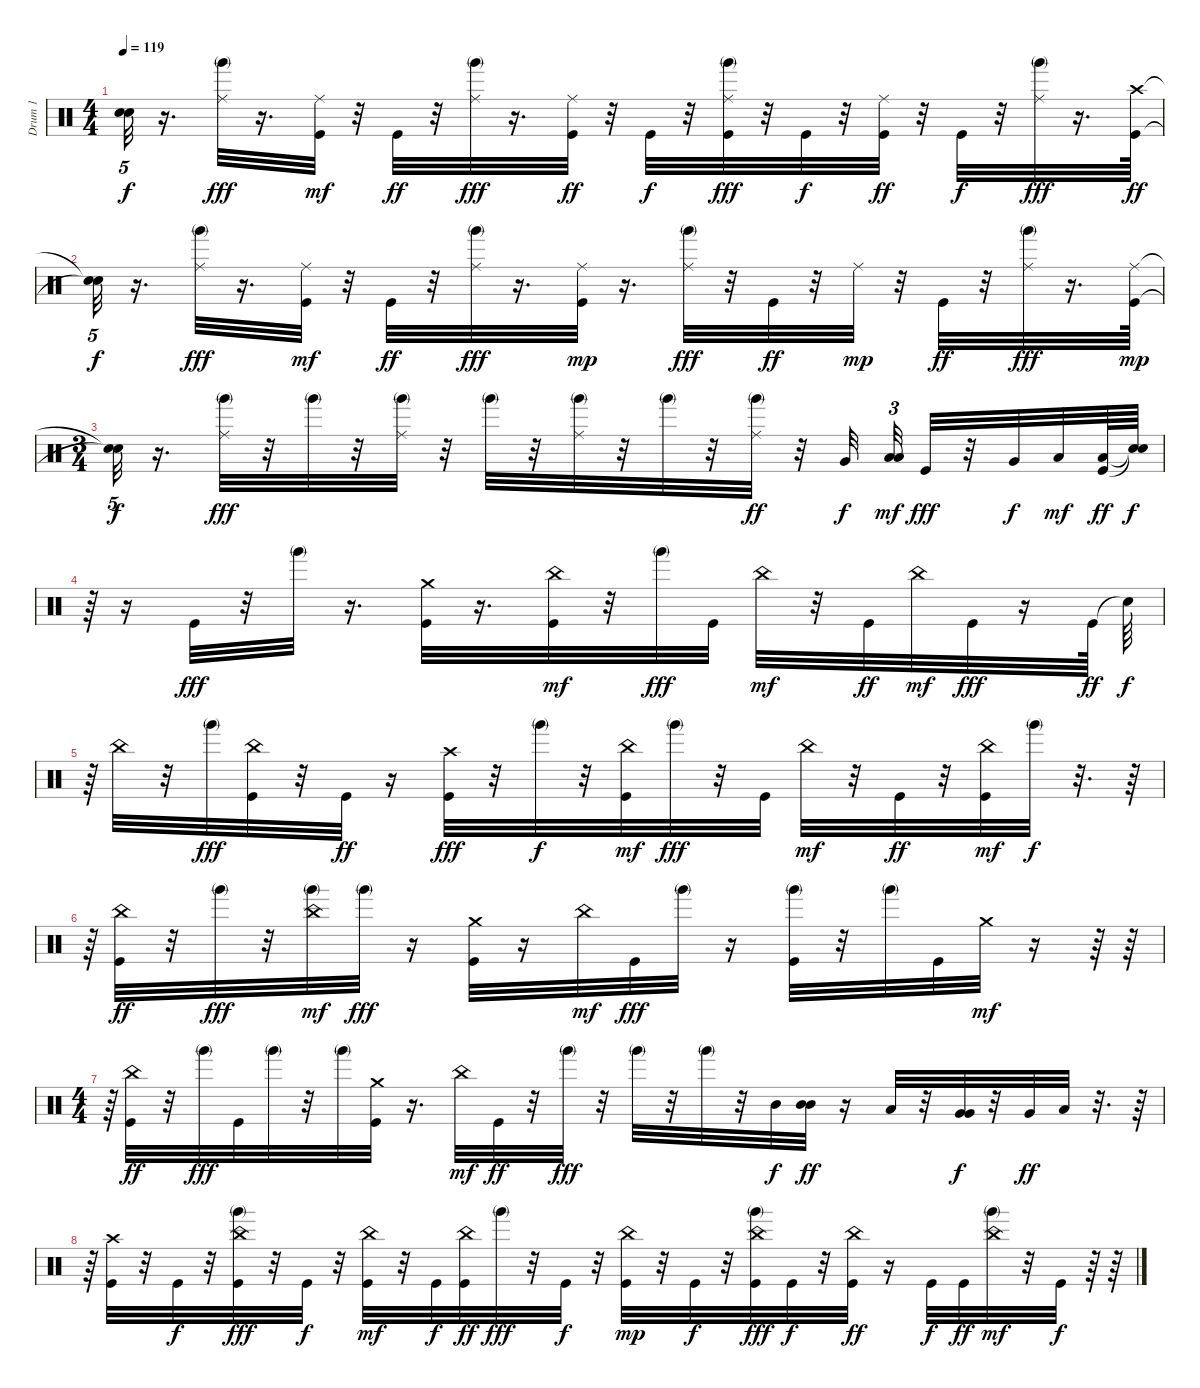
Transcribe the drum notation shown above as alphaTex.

\track ("Drum 1                          " "Drum 1    ") {instrument percussion}
\staff {score}
\articulation defaults
\ts (4 4)
\tempo 119
\clef neutral
\ks c
("Snare (hit)"{t} "Snare (hit)"{t}).32{tu (5 4) dy f} r.16{d} ("Ride (middle)" "Hand (mute) 2").32{dy fff} r.16{d} ("Kick (hit)" "Ride (middle)").32{dy mf} r.32 "Kick (hit)".32{dy ff} r.32 ("Ride (middle)" "Hand (mute) 2").32{dy fff} r.16{d} ("Ride (middle)" "Kick (hit)").32{dy ff} r.32 "Kick (hit)".32{dy f} r.32 ("Kick (hit)" "Ride (middle)" "Hand (mute) 2").32{dy fff} r.32 "Kick (hit)".32{dy f} r.32 ("Ride (middle)" "Kick (hit)").32{dy ff} r.32 "Kick (hit)".32{dy f} r.32 ("Ride (middle)" "Hand (mute) 2").32{dy fff} r.16{d} ("Kick (hit)" "Crash high (hit)").64{dy ff} |
("Snare (hit)"{t} "Snare (hit)"{t}).32{tu (5 4) dy f} r.16{d} ("Ride (middle)" "Hand (mute) 2").32{dy fff} r.16{d} ("Kick (hit)" "Ride (middle)").32{dy mf} r.32 "Kick (hit)".32{dy ff} r.32 ("Ride (middle)" "Hand (mute) 2").32{dy fff} r.16{d} ("Kick (hit)" "Ride (middle)").32{dy mp} r.16{d} ("Ride (middle)" "Hand (mute) 2").32{dy fff} r.32 "Kick (hit)".32{dy ff} r.32 "Ride (middle)".32{dy mp} r.32 "Kick (hit)".32{dy ff} r.32 ("Ride (middle)" "Hand (mute) 2").32{dy fff} r.16{d} ("Kick (hit)" "Ride (middle)").64{dy mp} |
\ts (3 4)
("Snare (hit)"{t} "Snare (hit)"{t}).32{tu (5 4) dy f} r.16{d} ("Ride (middle)" "Hand (mute) 2").32{dy fff} r.32 "Hand (mute) 2".32 r.32 ("Ride (middle)" "Hand (mute) 2").32 r.32 "Hand (mute) 2".32 r.32 ("Ride (middle)" "Hand (mute) 2").32 r.32 "Hand (mute) 2".32 r.32 ("Ride (middle)" "Hand (mute) 2").32{dy ff} r.32 "Very Low Tom (hit)".32{dy f} ("Low Tom (hit)" "Low Floor Tom (hit)").32{tu (3 2) dy mf} "Kick (hit)".32{dy fff} r.32 "Very Low Tom (hit)".32{dy f} "Low Tom (hit)".32{dy mf} ("Low Floor Tom (hit)" "Kick (hit)").64{dy ff} ("Snare (hit)"{t} "Snare (hit)"{t}).64{dy f} |
r.64 r.16 "Kick (hit)".32{dy fff} r.32 "Hand (mute) 2".32 r.16{d} ("Crash medium (hit)" "Kick (hit)").32 r.16{d} ("Kick (hit)" "China (hit)").32{dy mf} r.32 "Hand (mute) 2".32{dy fff} "Kick (hit)".32 "China (hit)".32{dy mf} r.32 "Kick (hit)".32{dy ff} "China (hit)".32{dy mf} "Kick (hit)".32{dy fff} r.16 "Kick (hit)".64{dy ff} "Snare (hit)"{t}.64{dy f} |
r.64 "China (hit)".32 r.32 "Hand (mute) 2".32{dy fff} ("China (hit)" "Kick (hit)").32 r.32 "Kick (hit)".32{dy ff} r.16 ("Crash high (hit)" "Kick (hit)").32{dy fff} r.32 "Hand (mute) 2".32{dy f} r.32 ("Kick (hit)" "China (hit)").32{dy mf} "Hand (mute) 2".32{dy fff} r.32 "Kick (hit)".32 "China (hit)".32{dy mf} r.32 "Kick (hit)".32{dy ff} r.32 ("Kick (hit)" "China (hit)").32{dy mf} "Hand (mute) 2".32{dy f} r.32{d} r.64 |
r.64 ("China (hit)" "Kick (hit)").32{dy ff} r.32 "Hand (mute) 2".32{dy fff} r.32 ("Hand (mute) 2" "China (hit)").32{dy mf} "Hand (mute) 2".32{dy fff} r.16 ("Crash medium (hit)" "Kick (hit)").32 r.16 "China (hit)".32{dy mf} "Kick (hit)".32{dy fff} "Hand (mute) 2".32 r.16 ("Hand (mute) 2" "Kick (hit)").32 r.32 "Hand (mute) 2".32 "Kick (hit)".32 "Crash medium (hit)".32{dy mf} r.16 r.64 r.64 |
\ts (4 4)
r.64 ("China (hit)" "Kick (hit)").32{dy ff} r.32 "Hand (mute) 2".32{dy fff} "Kick (hit)".32 "Hand (mute) 2".32 r.32 "Hand (mute) 2".32 ("Kick (hit)" "Crash medium (hit)").32 r.16{d} "China (hit)".32{dy mf} "Kick (hit)".32{dy ff} r.32 "Hand (mute) 2".32{dy fff} r.32 "Hand (mute) 2".32 r.32 "Hand (mute) 2".32 r.32 "Mid Tom (hit)".32{dy f} ("Mid Tom (hit)" "Mid Tom (hit)").32{dy ff} r.16 "Low Tom (hit)".32 r.32 ("Very Low Tom (hit)" "Very Low Tom (hit)").32{dy f} r.32 "Very Low Tom (hit)".32{dy ff} "Low Floor Tom (hit)".32 r.32{d} r.64 |
r.64 ("Crash high (hit)" "Kick (hit)").32 r.32 "Kick (hit)".32{dy f} r.32 ("Kick (hit)" "China (hit)" "Hand (mute) 2").32{dy fff} r.32 "Kick (hit)".32{dy f} r.32 ("Kick (hit)" "China (hit)").32{dy mf} r.32 "Kick (hit)".32{dy f} ("China (hit)" "Kick (hit)").32{dy ff} "Hand (mute) 2".32{dy fff} r.32 "Kick (hit)".32{dy f} r.32 ("Kick (hit)" "China (hit)").32{dy mp} r.32 "Kick (hit)".32{dy f} r.32 ("China (hit)" "Kick (hit)" "Hand (mute) 2").32{dy fff} "Kick (hit)".32{dy f} r.32 ("Kick (hit)" "China (hit)").32{dy ff} r.16 "Kick (hit)".32{dy f} "Kick (hit)".32{dy ff} ("Hand (mute) 2" "China (hit)").32{dy mf} r.32 "Kick (hit)".32{dy f} r.64 r.64
